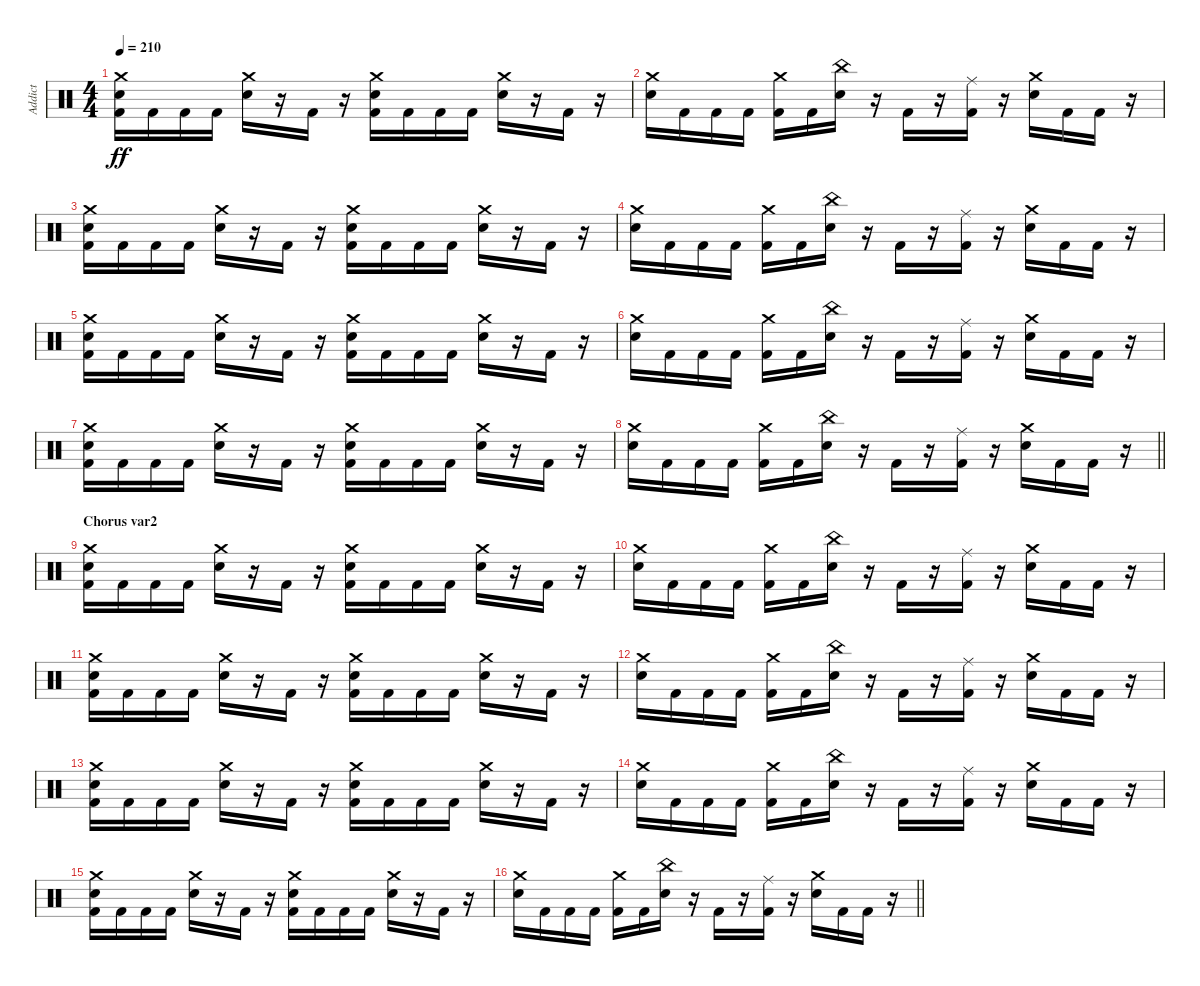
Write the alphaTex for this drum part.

\track ("Addict" "Addict") {instrument percussion}
\staff {score}
\articulation defaults
\ts (4 4)
\tempo 210
\clef neutral
\ks c
("Kick (hit) 2" "Snare (hit) 2" "Crash medium (hit)").16{dy ff} "Kick (hit) 2".16 "Kick (hit) 2".16 "Kick (hit) 2".16 ("Snare (hit) 2" "Crash medium (hit)").16 r.16 "Kick (hit) 2".16 r.16 ("Kick (hit) 2" "Snare (hit) 2" "Crash medium (hit)").16 "Kick (hit) 2".16 "Kick (hit) 2".16 "Kick (hit) 2".16 ("Snare (hit) 2" "Crash medium (hit)").16 r.16 "Kick (hit) 2".16 r.16 |
("Snare (hit) 2" "Crash medium (hit)").16 "Kick (hit) 2".16 "Kick (hit) 2".16 "Kick (hit) 2".16 ("Kick (hit) 2" "Crash medium (hit)").16 "Kick (hit) 2".16 ("Snare (hit) 2" "China (hit)").16 r.16 "Kick (hit) 2".16 r.16 ("Kick (hit) 2" "Ride (middle)").16 r.16 ("Snare (hit) 2" "Crash medium (hit)").16 "Kick (hit) 2".16 "Kick (hit) 2".16 r.16 |
("Kick (hit) 2" "Snare (hit) 2" "Crash medium (hit)").16 "Kick (hit) 2".16 "Kick (hit) 2".16 "Kick (hit) 2".16 ("Snare (hit) 2" "Crash medium (hit)").16 r.16 "Kick (hit) 2".16 r.16 ("Kick (hit) 2" "Snare (hit) 2" "Crash medium (hit)").16 "Kick (hit) 2".16 "Kick (hit) 2".16 "Kick (hit) 2".16 ("Snare (hit) 2" "Crash medium (hit)").16 r.16 "Kick (hit) 2".16 r.16 |
("Snare (hit) 2" "Crash medium (hit)").16 "Kick (hit) 2".16 "Kick (hit) 2".16 "Kick (hit) 2".16 ("Kick (hit) 2" "Crash medium (hit)").16 "Kick (hit) 2".16 ("Snare (hit) 2" "China (hit)").16 r.16 "Kick (hit) 2".16 r.16 ("Kick (hit) 2" "Ride (middle)").16 r.16 ("Snare (hit) 2" "Crash medium (hit)").16 "Kick (hit) 2".16 "Kick (hit) 2".16 r.16 |
("Kick (hit) 2" "Snare (hit) 2" "Crash medium (hit)").16 "Kick (hit) 2".16 "Kick (hit) 2".16 "Kick (hit) 2".16 ("Snare (hit) 2" "Crash medium (hit)").16 r.16 "Kick (hit) 2".16 r.16 ("Kick (hit) 2" "Snare (hit) 2" "Crash medium (hit)").16 "Kick (hit) 2".16 "Kick (hit) 2".16 "Kick (hit) 2".16 ("Snare (hit) 2" "Crash medium (hit)").16 r.16 "Kick (hit) 2".16 r.16 |
("Snare (hit) 2" "Crash medium (hit)").16 "Kick (hit) 2".16 "Kick (hit) 2".16 "Kick (hit) 2".16 ("Kick (hit) 2" "Crash medium (hit)").16 "Kick (hit) 2".16 ("Snare (hit) 2" "China (hit)").16 r.16 "Kick (hit) 2".16 r.16 ("Kick (hit) 2" "Ride (middle)").16 r.16 ("Snare (hit) 2" "Crash medium (hit)").16 "Kick (hit) 2".16 "Kick (hit) 2".16 r.16 |
("Kick (hit) 2" "Snare (hit) 2" "Crash medium (hit)").16 "Kick (hit) 2".16 "Kick (hit) 2".16 "Kick (hit) 2".16 ("Snare (hit) 2" "Crash medium (hit)").16 r.16 "Kick (hit) 2".16 r.16 ("Kick (hit) 2" "Snare (hit) 2" "Crash medium (hit)").16 "Kick (hit) 2".16 "Kick (hit) 2".16 "Kick (hit) 2".16 ("Snare (hit) 2" "Crash medium (hit)").16 r.16 "Kick (hit) 2".16 r.16 |
\barLineRight lightlight
("Snare (hit) 2" "Crash medium (hit)").16 "Kick (hit) 2".16 "Kick (hit) 2".16 "Kick (hit) 2".16 ("Kick (hit) 2" "Crash medium (hit)").16 "Kick (hit) 2".16 ("Snare (hit) 2" "China (hit)").16 r.16 "Kick (hit) 2".16 r.16 ("Kick (hit) 2" "Ride (middle)").16 r.16 ("Snare (hit) 2" "Crash medium (hit)").16 "Kick (hit) 2".16 "Kick (hit) 2".16 r.16 |
\section ("" "Chorus var2")
("Kick (hit) 2" "Snare (hit) 2" "Crash medium (hit)").16 "Kick (hit) 2".16 "Kick (hit) 2".16 "Kick (hit) 2".16 ("Snare (hit) 2" "Crash medium (hit)").16 r.16 "Kick (hit) 2".16 r.16 ("Kick (hit) 2" "Snare (hit) 2" "Crash medium (hit)").16 "Kick (hit) 2".16 "Kick (hit) 2".16 "Kick (hit) 2".16 ("Snare (hit) 2" "Crash medium (hit)").16 r.16 "Kick (hit) 2".16 r.16 |
("Snare (hit) 2" "Crash medium (hit)").16 "Kick (hit) 2".16 "Kick (hit) 2".16 "Kick (hit) 2".16 ("Kick (hit) 2" "Crash medium (hit)").16 "Kick (hit) 2".16 ("Snare (hit) 2" "China (hit)").16 r.16 "Kick (hit) 2".16 r.16 ("Kick (hit) 2" "Ride (middle)").16 r.16 ("Snare (hit) 2" "Crash medium (hit)").16 "Kick (hit) 2".16 "Kick (hit) 2".16 r.16 |
("Kick (hit) 2" "Snare (hit) 2" "Crash medium (hit)").16 "Kick (hit) 2".16 "Kick (hit) 2".16 "Kick (hit) 2".16 ("Snare (hit) 2" "Crash medium (hit)").16 r.16 "Kick (hit) 2".16 r.16 ("Kick (hit) 2" "Snare (hit) 2" "Crash medium (hit)").16 "Kick (hit) 2".16 "Kick (hit) 2".16 "Kick (hit) 2".16 ("Snare (hit) 2" "Crash medium (hit)").16 r.16 "Kick (hit) 2".16 r.16 |
("Snare (hit) 2" "Crash medium (hit)").16 "Kick (hit) 2".16 "Kick (hit) 2".16 "Kick (hit) 2".16 ("Kick (hit) 2" "Crash medium (hit)").16 "Kick (hit) 2".16 ("Snare (hit) 2" "China (hit)").16 r.16 "Kick (hit) 2".16 r.16 ("Kick (hit) 2" "Ride (middle)").16 r.16 ("Snare (hit) 2" "Crash medium (hit)").16 "Kick (hit) 2".16 "Kick (hit) 2".16 r.16 |
("Kick (hit) 2" "Snare (hit) 2" "Crash medium (hit)").16 "Kick (hit) 2".16 "Kick (hit) 2".16 "Kick (hit) 2".16 ("Snare (hit) 2" "Crash medium (hit)").16 r.16 "Kick (hit) 2".16 r.16 ("Kick (hit) 2" "Snare (hit) 2" "Crash medium (hit)").16 "Kick (hit) 2".16 "Kick (hit) 2".16 "Kick (hit) 2".16 ("Snare (hit) 2" "Crash medium (hit)").16 r.16 "Kick (hit) 2".16 r.16 |
("Snare (hit) 2" "Crash medium (hit)").16 "Kick (hit) 2".16 "Kick (hit) 2".16 "Kick (hit) 2".16 ("Kick (hit) 2" "Crash medium (hit)").16 "Kick (hit) 2".16 ("Snare (hit) 2" "China (hit)").16 r.16 "Kick (hit) 2".16 r.16 ("Kick (hit) 2" "Ride (middle)").16 r.16 ("Snare (hit) 2" "Crash medium (hit)").16 "Kick (hit) 2".16 "Kick (hit) 2".16 r.16 |
("Kick (hit) 2" "Snare (hit) 2" "Crash medium (hit)").16 "Kick (hit) 2".16 "Kick (hit) 2".16 "Kick (hit) 2".16 ("Snare (hit) 2" "Crash medium (hit)").16 r.16 "Kick (hit) 2".16 r.16 ("Kick (hit) 2" "Snare (hit) 2" "Crash medium (hit)").16 "Kick (hit) 2".16 "Kick (hit) 2".16 "Kick (hit) 2".16 ("Snare (hit) 2" "Crash medium (hit)").16 r.16 "Kick (hit) 2".16 r.16 |
\barLineRight lightlight
("Snare (hit) 2" "Crash medium (hit)").16 "Kick (hit) 2".16 "Kick (hit) 2".16 "Kick (hit) 2".16 ("Kick (hit) 2" "Crash medium (hit)").16 "Kick (hit) 2".16 ("Snare (hit) 2" "China (hit)").16 r.16 "Kick (hit) 2".16 r.16 ("Kick (hit) 2" "Ride (middle)").16 r.16 ("Snare (hit) 2" "Crash medium (hit)").16 "Kick (hit) 2".16 "Kick (hit) 2".16 r.16
